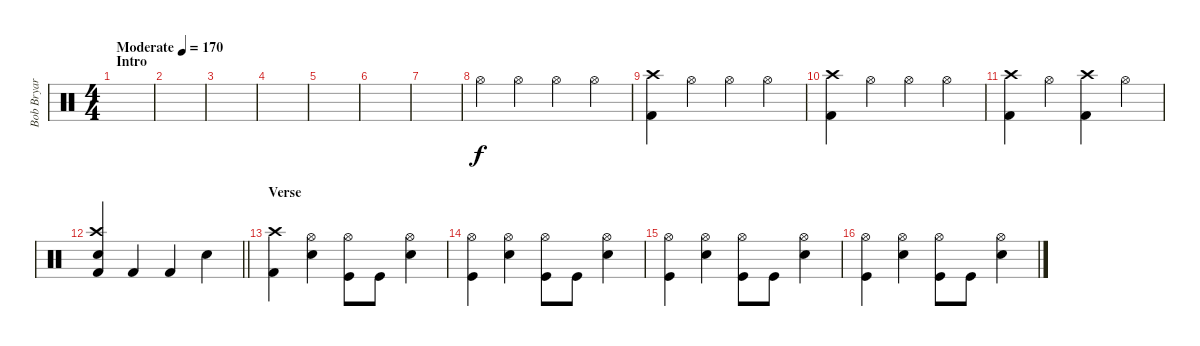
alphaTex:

\track ("Bob Bryar - Drums" "Bob Bryar ") {instrument percussion}
\staff {score}
\articulation defaults
\ts (4 4)
\section ("" "Intro")
\tempo (170 "Moderate")
\clef neutral
\ks c
|
|
|
|
|
|
|
"Hi-Hat (open)".4 "Hi-Hat (open)".4 "Hi-Hat (open)".4 "Hi-Hat (open)".4 |
("Kick (hit) 2" "Crash high (hit)").4 "Hi-Hat (open)".4 "Hi-Hat (open)".4 "Hi-Hat (open)".4 |
("Kick (hit) 2" "Crash high (hit)").4 "Hi-Hat (open)".4 "Hi-Hat (open)".4 "Hi-Hat (open)".4 |
("Kick (hit) 2" "Crash high (hit)").4 "Hi-Hat (open)".4 ("Kick (hit) 2" "Crash high (hit)").4 "Hi-Hat (open)".4 |
\barLineRight lightlight
("Kick (hit) 2" "Crash high (hit)" "Snare (hit) 2").4 "Kick (hit) 2".4 "Kick (hit) 2".4 "Snare (hit) 2".4 |
\section ("" "Verse")
("Kick (hit) 2" "Crash high (hit)").4 ("Hi-Hat (open)" "Snare (hit) 2").4 ("Hi-Hat (open)" "Kick (hit)").8 "Kick (hit)".8 ("Snare (hit) 2" "Hi-Hat (open)").4 |
("Hi-Hat (open)" "Kick (hit)").4 ("Snare (hit) 2" "Hi-Hat (open)").4 ("Hi-Hat (open)" "Kick (hit)").8 "Kick (hit)".8 ("Snare (hit) 2" "Hi-Hat (open)").4 |
("Hi-Hat (open)" "Kick (hit)").4 ("Snare (hit) 2" "Hi-Hat (open)").4 ("Hi-Hat (open)" "Kick (hit)").8 "Kick (hit)".8 ("Snare (hit) 2" "Hi-Hat (open)").4 |
("Hi-Hat (open)" "Kick (hit)").4 ("Snare (hit) 2" "Hi-Hat (open)").4 ("Hi-Hat (open)" "Kick (hit)").8 "Kick (hit)".8 ("Snare (hit) 2" "Hi-Hat (open)").4
